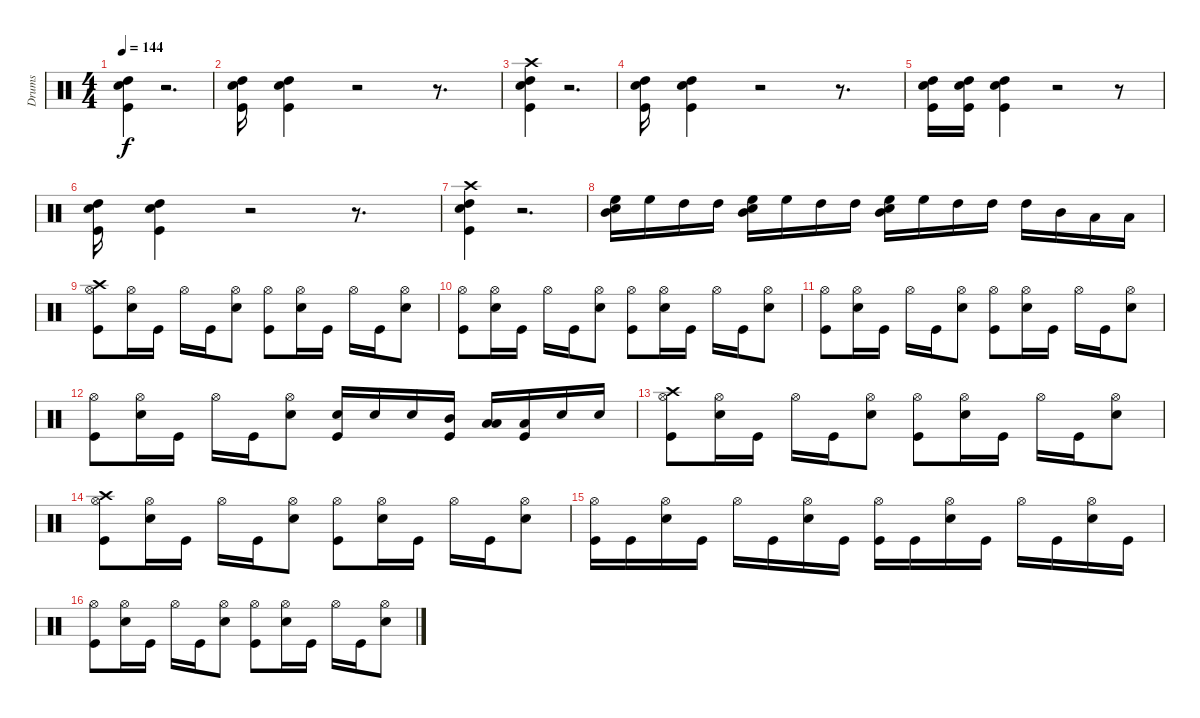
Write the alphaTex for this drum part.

\track ("Drums" "Drums") {instrument percussion}
\staff {score}
\articulation defaults
\ts (4 4)
\tempo 144
\clef neutral
\ks c
("Electric Snare (hit)" "Kick (hit)" "High Tom (hit)").4{dy f} r.2{d} |
("Electric Snare (hit)" "Kick (hit)" "High Tom (hit)").16 ("Electric Snare (hit)" "Kick (hit)" "High Tom (hit)").4 r.2 r.8{d} |
("Electric Snare (hit)" "Kick (hit)" "High Tom (hit)" "Crash high (hit)").4 r.2{d} |
("Electric Snare (hit)" "Kick (hit)" "High Tom (hit)").16 ("Electric Snare (hit)" "Kick (hit)" "High Tom (hit)").4 r.2 r.8{d} |
("Electric Snare (hit)" "Kick (hit)" "High Tom (hit)").16 ("Electric Snare (hit)" "Kick (hit)" "High Tom (hit)").16 ("Electric Snare (hit)" "Kick (hit)" "High Tom (hit)").4 r.2 r.8 |
("Electric Snare (hit)" "Kick (hit)" "High Tom (hit)").16 ("Electric Snare (hit)" "Kick (hit)" "High Tom (hit)").4 r.2 r.8{d} |
("Electric Snare (hit)" "Kick (hit)" "High Tom (hit)" "Crash high (hit)").4 r.2{d} |
("High Floor Tom (hit)" "Mid Tom (hit)" "Electric Snare (hit)").16 "High Floor Tom (hit)".16 "High Tom (hit)".16 "High Tom (hit)".16 ("High Floor Tom (hit)" "Mid Tom (hit)" "Electric Snare (hit)").16 "High Floor Tom (hit)".16 "High Tom (hit)".16 "High Tom (hit)".16 ("High Floor Tom (hit)" "Mid Tom (hit)" "Electric Snare (hit)").16 "High Floor Tom (hit)".16 "High Tom (hit)".16 "High Tom (hit)".16 "High Tom (hit)".16 "Mid Tom (hit)".16 "Low Tom (hit)".16 "Low Floor Tom (hit)".16 |
("Hi-Hat (open)" "Crash high (hit)" "Kick (hit)").8 ("Hi-Hat (open)" "Electric Snare (hit)").16 "Kick (hit)".16 "Hi-Hat (open)".16 "Kick (hit)".16 ("Hi-Hat (open)" "Electric Snare (hit)").8 ("Hi-Hat (open)" "Kick (hit)").8 ("Hi-Hat (open)" "Electric Snare (hit)").16 "Kick (hit)".16 "Hi-Hat (open)".16 "Kick (hit)".16 ("Hi-Hat (open)" "Electric Snare (hit)").8 |
("Hi-Hat (open)" "Kick (hit)").8 ("Hi-Hat (open)" "Electric Snare (hit)").16 "Kick (hit)".16 "Hi-Hat (open)".16 "Kick (hit)".16 ("Hi-Hat (open)" "Electric Snare (hit)").8 ("Hi-Hat (open)" "Kick (hit)").8 ("Hi-Hat (open)" "Electric Snare (hit)").16 "Kick (hit)".16 "Hi-Hat (open)".16 "Kick (hit)".16 ("Hi-Hat (open)" "Electric Snare (hit)").8 |
("Hi-Hat (open)" "Kick (hit)").8 ("Hi-Hat (open)" "Electric Snare (hit)").16 "Kick (hit)".16 "Hi-Hat (open)".16 "Kick (hit)".16 ("Hi-Hat (open)" "Electric Snare (hit)").8 ("Hi-Hat (open)" "Kick (hit)").8 ("Hi-Hat (open)" "Electric Snare (hit)").16 "Kick (hit)".16 "Hi-Hat (open)".16 "Kick (hit)".16 ("Hi-Hat (open)" "Electric Snare (hit)").8 |
("Hi-Hat (open)" "Kick (hit)").8 ("Hi-Hat (open)" "Electric Snare (hit)").16 "Kick (hit)".16 "Hi-Hat (open)".16 "Kick (hit)".16 ("Hi-Hat (open)" "Electric Snare (hit)").8 ("Electric Snare (hit)" "Kick (hit)").16 "Electric Snare (hit)".16 "Electric Snare (hit)".16 ("Mid Tom (hit)" "Kick (hit)").16 ("Low Floor Tom (hit)" "Low Tom (hit)").16 ("Low Floor Tom (hit)" "Kick (hit)").16 "Electric Snare (hit)".16 "Electric Snare (hit)".16 |
("Hi-Hat (open)" "Crash high (hit)" "Kick (hit)").8 ("Hi-Hat (open)" "Electric Snare (hit)").16 "Kick (hit)".16 "Hi-Hat (open)".16 "Kick (hit)".16 ("Hi-Hat (open)" "Electric Snare (hit)").8 ("Hi-Hat (open)" "Kick (hit)").8 ("Hi-Hat (open)" "Electric Snare (hit)").16 "Kick (hit)".16 "Hi-Hat (open)".16 "Kick (hit)".16 ("Hi-Hat (open)" "Electric Snare (hit)").8 |
("Hi-Hat (open)" "Crash high (hit)" "Kick (hit)").8 ("Hi-Hat (open)" "Electric Snare (hit)").16 "Kick (hit)".16 "Hi-Hat (open)".16 "Kick (hit)".16 ("Hi-Hat (open)" "Electric Snare (hit)").8 ("Hi-Hat (open)" "Kick (hit)").8 ("Hi-Hat (open)" "Electric Snare (hit)").16 "Kick (hit)".16 "Hi-Hat (open)".16 "Kick (hit)".16 ("Hi-Hat (open)" "Electric Snare (hit)").8 |
("Hi-Hat (open)" "Kick (hit)").16 "Kick (hit)".16 ("Hi-Hat (open)" "Electric Snare (hit)").16 "Kick (hit)".16 "Hi-Hat (open)".16 "Kick (hit)".16 ("Hi-Hat (open)" "Electric Snare (hit)").16 "Kick (hit)".16 ("Hi-Hat (open)" "Kick (hit)").16 "Kick (hit)".16 ("Hi-Hat (open)" "Electric Snare (hit)").16 "Kick (hit)".16 "Hi-Hat (open)".16 "Kick (hit)".16 ("Hi-Hat (open)" "Electric Snare (hit)").16 "Kick (hit)".16 |
("Hi-Hat (open)" "Kick (hit)").8 ("Hi-Hat (open)" "Electric Snare (hit)").16 "Kick (hit)".16 "Hi-Hat (open)".16 "Kick (hit)".16 ("Hi-Hat (open)" "Electric Snare (hit)").8 ("Hi-Hat (open)" "Kick (hit)").8 ("Hi-Hat (open)" "Electric Snare (hit)").16 "Kick (hit)".16 "Hi-Hat (open)".16 "Kick (hit)".16 ("Hi-Hat (open)" "Electric Snare (hit)").8
